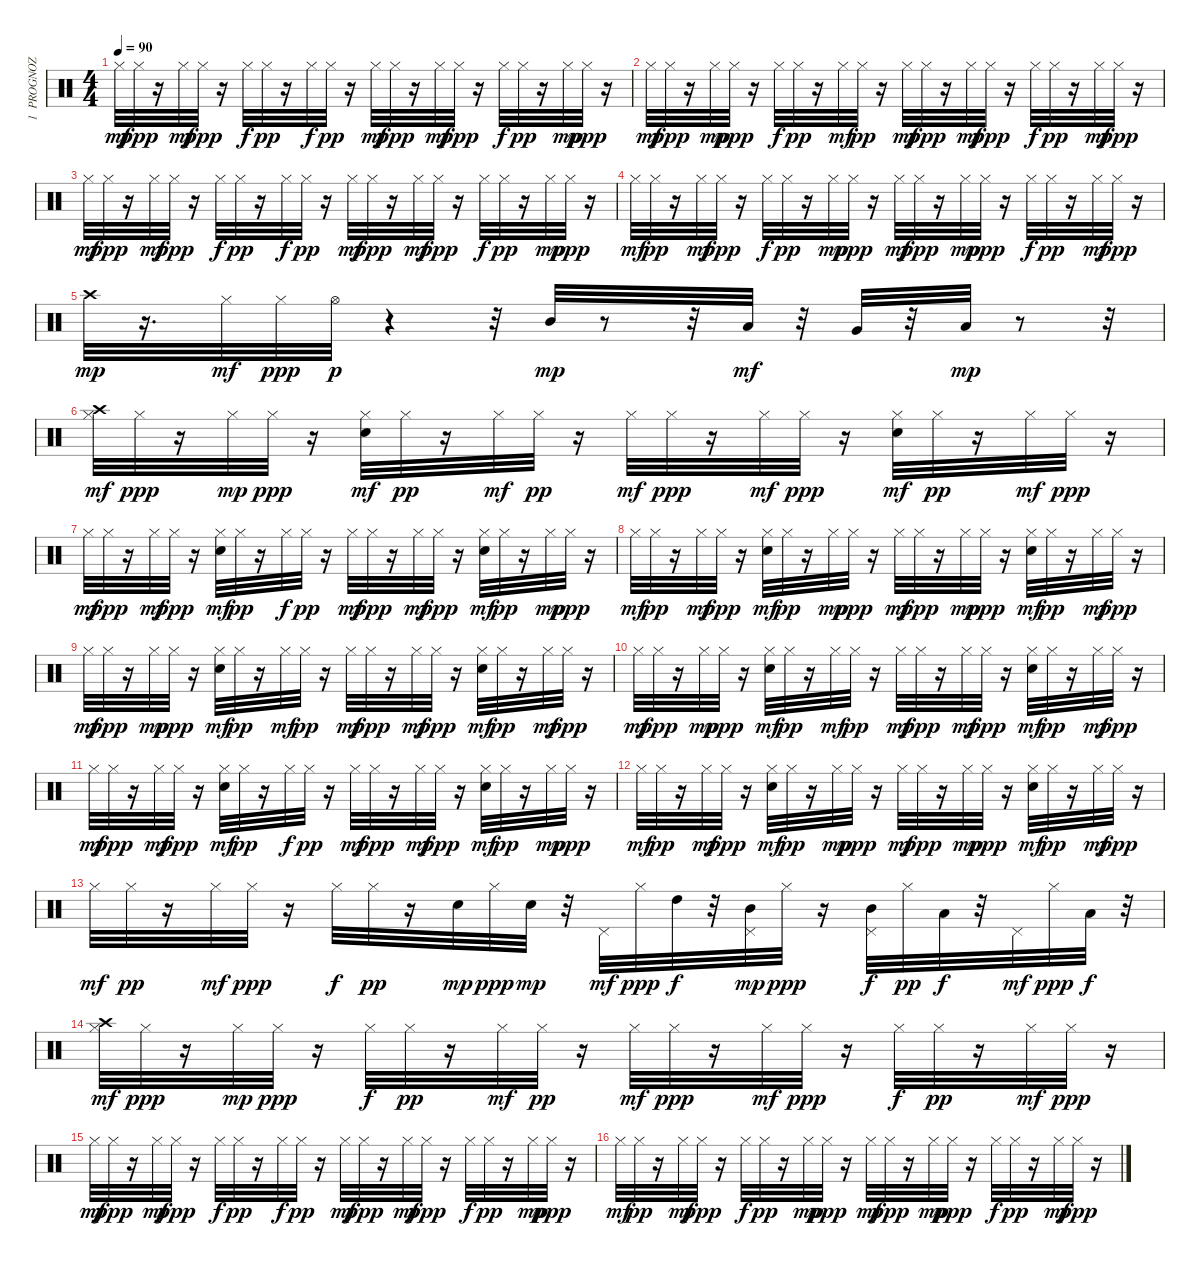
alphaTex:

\track ("1  PROGNOZ POGODY" "1  PROGNOZ") {instrument percussion}
\staff {score}
\articulation defaults
\ts (4 4)
\tempo 90
\clef neutral
\ks c "Hi-Hat (closed)".32{dy mf} "Hi-Hat (closed)".32{dy ppp}
r.16 "Hi-Hat (closed)".32{dy mf} "Hi-Hat (closed)".32{dy ppp} r.16 "Hi-Hat (closed)".32{dy f} "Hi-Hat (closed)".32{dy pp} r.16 "Hi-Hat (closed)".32{dy f} "Hi-Hat (closed)".32{dy pp} r.16 "Hi-Hat (closed)".32{dy mf} "Hi-Hat (closed)".32{dy ppp} r.16 "Hi-Hat (closed)".32{dy mf} "Hi-Hat (closed)".32{dy ppp} r.16 "Hi-Hat (closed)".32{dy f} "Hi-Hat (closed)".32{dy pp} r.16 "Hi-Hat (closed)".32{dy mp} "Hi-Hat (closed)".32{dy ppp} r.16 |
"Hi-Hat (closed)".32{dy mf} "Hi-Hat (closed)".32{dy ppp} r.16 "Hi-Hat (closed)".32{dy mp} "Hi-Hat (closed)".32{dy ppp} r.16 "Hi-Hat (closed)".32{dy f} "Hi-Hat (closed)".32{dy pp} r.16 "Hi-Hat (closed)".32{dy mf} "Hi-Hat (closed)".32{dy pp} r.16 "Hi-Hat (closed)".32{dy mf} "Hi-Hat (closed)".32{dy ppp} r.16 "Hi-Hat (closed)".32{dy mf} "Hi-Hat (closed)".32{dy ppp} r.16 "Hi-Hat (closed)".32{dy f} "Hi-Hat (closed)".32{dy pp} r.16 "Hi-Hat (closed)".32{dy mf} "Hi-Hat (closed)".32{dy ppp} r.16 |
"Hi-Hat (closed)".32{dy mf} "Hi-Hat (closed)".32{dy ppp} r.16 "Hi-Hat (closed)".32{dy mf} "Hi-Hat (closed)".32{dy ppp} r.16 "Hi-Hat (closed)".32{dy f} "Hi-Hat (closed)".32{dy pp} r.16 "Hi-Hat (closed)".32{dy f} "Hi-Hat (closed)".32{dy pp} r.16 "Hi-Hat (closed)".32{dy mf} "Hi-Hat (closed)".32{dy ppp} r.16 "Hi-Hat (closed)".32{dy mf} "Hi-Hat (closed)".32{dy ppp} r.16 "Hi-Hat (closed)".32{dy f} "Hi-Hat (closed)".32{dy pp} r.16 "Hi-Hat (closed)".32{dy mp} "Hi-Hat (closed)".32{dy ppp} r.16 |
"Hi-Hat (closed)".32{dy mf} "Hi-Hat (closed)".32{dy pp} r.16 "Hi-Hat (closed)".32{dy mf} "Hi-Hat (closed)".32{dy ppp} r.16 "Hi-Hat (closed)".32{dy f} "Hi-Hat (closed)".32{dy pp} r.16 "Hi-Hat (closed)".32{dy mp} "Hi-Hat (closed)".32{dy ppp} r.16 "Hi-Hat (closed)".32{dy mf} "Hi-Hat (closed)".32{dy ppp} r.16 "Hi-Hat (closed)".32{dy mp} "Hi-Hat (closed)".32{dy ppp} r.16 "Hi-Hat (closed)".32{dy f} "Hi-Hat (closed)".32{dy pp} r.16 "Hi-Hat (closed)".32{dy mf} "Hi-Hat (closed)".32{dy ppp} r.16 |
"Crash high (hit)".32{dy mp} r.16{d} "Hi-Hat (closed)".32{dy mf} "Hi-Hat (closed)".32{dy ppp} "Hi-Hat (open)".32{dy p} r.4 r.32 "Mid Tom (hit)".32{dy mp} r.8 r.32 "Low Tom (hit)".32{dy mf} r.32 "Very Low Tom (hit)".32 r.32 "Low Floor Tom (hit)".32{dy mp} r.8 r.32 |
("Crash high (hit)" "Hi-Hat (closed)").32{dy mf} "Hi-Hat (closed)".32{dy ppp} r.16 "Hi-Hat (closed)".32{dy mp} "Hi-Hat (closed)".32{dy ppp} r.16 ("Hi-Hat (closed)" "Snare (hit) 2").32{dy mf} "Hi-Hat (closed)".32{dy pp} r.16 "Hi-Hat (closed)".32{dy mf} "Hi-Hat (closed)".32{dy pp} r.16 "Hi-Hat (closed)".32{dy mf} "Hi-Hat (closed)".32{dy ppp} r.16 "Hi-Hat (closed)".32{dy mf} "Hi-Hat (closed)".32{dy ppp} r.16 ("Hi-Hat (closed)" "Snare (hit) 2").32{dy mf} "Hi-Hat (closed)".32{dy pp} r.16 "Hi-Hat (closed)".32{dy mf} "Hi-Hat (closed)".32{dy ppp} r.16 |
"Hi-Hat (closed)".32{dy mf} "Hi-Hat (closed)".32{dy ppp} r.16 "Hi-Hat (closed)".32{dy mf} "Hi-Hat (closed)".32{dy ppp} r.16 ("Hi-Hat (closed)" "Snare (hit) 2").32{dy mf} "Hi-Hat (closed)".32{dy pp} r.16 "Hi-Hat (closed)".32{dy f} "Hi-Hat (closed)".32{dy pp} r.16 "Hi-Hat (closed)".32{dy mf} "Hi-Hat (closed)".32{dy ppp} r.16 "Hi-Hat (closed)".32{dy mf} "Hi-Hat (closed)".32{dy ppp} r.16 ("Hi-Hat (closed)" "Snare (hit) 2").32{dy mf} "Hi-Hat (closed)".32{dy pp} r.16 "Hi-Hat (closed)".32{dy mp} "Hi-Hat (closed)".32{dy ppp} r.16 |
"Hi-Hat (closed)".32{dy mf} "Hi-Hat (closed)".32{dy pp} r.16 "Hi-Hat (closed)".32{dy mf} "Hi-Hat (closed)".32{dy ppp} r.16 ("Hi-Hat (closed)" "Snare (hit) 2").32{dy mf} "Hi-Hat (closed)".32{dy pp} r.16 "Hi-Hat (closed)".32{dy mp} "Hi-Hat (closed)".32{dy ppp} r.16 "Hi-Hat (closed)".32{dy mf} "Hi-Hat (closed)".32{dy ppp} r.16 "Hi-Hat (closed)".32{dy mp} "Hi-Hat (closed)".32{dy ppp} r.16 ("Hi-Hat (closed)" "Snare (hit) 2").32{dy mf} "Hi-Hat (closed)".32{dy pp} r.16 "Hi-Hat (closed)".32{dy mf} "Hi-Hat (closed)".32{dy ppp} r.16 |
"Hi-Hat (closed)".32{dy mf} "Hi-Hat (closed)".32{dy ppp} r.16 "Hi-Hat (closed)".32{dy mp} "Hi-Hat (closed)".32{dy ppp} r.16 ("Hi-Hat (closed)" "Snare (hit) 2").32{dy mf} "Hi-Hat (closed)".32{dy pp} r.16 "Hi-Hat (closed)".32{dy mf} "Hi-Hat (closed)".32{dy pp} r.16 "Hi-Hat (closed)".32{dy mf} "Hi-Hat (closed)".32{dy ppp} r.16 "Hi-Hat (closed)".32{dy mf} "Hi-Hat (closed)".32{dy ppp} r.16 ("Hi-Hat (closed)" "Snare (hit) 2").32{dy mf} "Hi-Hat (closed)".32{dy pp} r.16 "Hi-Hat (closed)".32{dy mf} "Hi-Hat (closed)".32{dy ppp} r.16 |
"Hi-Hat (closed)".32{dy mf} "Hi-Hat (closed)".32{dy ppp} r.16 "Hi-Hat (closed)".32{dy mp} "Hi-Hat (closed)".32{dy ppp} r.16 ("Hi-Hat (closed)" "Snare (hit) 2").32{dy mf} "Hi-Hat (closed)".32{dy pp} r.16 "Hi-Hat (closed)".32{dy mf} "Hi-Hat (closed)".32{dy pp} r.16 "Hi-Hat (closed)".32{dy mf} "Hi-Hat (closed)".32{dy ppp} r.16 "Hi-Hat (closed)".32{dy mf} "Hi-Hat (closed)".32{dy ppp} r.16 ("Hi-Hat (closed)" "Snare (hit) 2").32{dy mf} "Hi-Hat (closed)".32{dy pp} r.16 "Hi-Hat (closed)".32{dy mf} "Hi-Hat (closed)".32{dy ppp} r.16 |
"Hi-Hat (closed)".32{dy mf} "Hi-Hat (closed)".32{dy ppp} r.16 "Hi-Hat (closed)".32{dy mf} "Hi-Hat (closed)".32{dy ppp} r.16 ("Hi-Hat (closed)" "Snare (hit) 2").32{dy mf} "Hi-Hat (closed)".32{dy pp} r.16 "Hi-Hat (closed)".32{dy f} "Hi-Hat (closed)".32{dy pp} r.16 "Hi-Hat (closed)".32{dy mf} "Hi-Hat (closed)".32{dy ppp} r.16 "Hi-Hat (closed)".32{dy mf} "Hi-Hat (closed)".32{dy ppp} r.16 ("Hi-Hat (closed)" "Snare (hit) 2").32{dy mf} "Hi-Hat (closed)".32{dy pp} r.16 "Hi-Hat (closed)".32{dy mp} "Hi-Hat (closed)".32{dy ppp} r.16 |
"Hi-Hat (closed)".32{dy mf} "Hi-Hat (closed)".32{dy pp} r.16 "Hi-Hat (closed)".32{dy mf} "Hi-Hat (closed)".32{dy ppp} r.16 ("Hi-Hat (closed)" "Snare (hit) 2").32{dy mf} "Hi-Hat (closed)".32{dy pp} r.16 "Hi-Hat (closed)".32{dy mp} "Hi-Hat (closed)".32{dy ppp} r.16 "Hi-Hat (closed)".32{dy mf} "Hi-Hat (closed)".32{dy ppp} r.16 "Hi-Hat (closed)".32{dy mp} "Hi-Hat (closed)".32{dy ppp} r.16 ("Hi-Hat (closed)" "Snare (hit) 2").32{dy mf} "Hi-Hat (closed)".32{dy pp} r.16 "Hi-Hat (closed)".32{dy mf} "Hi-Hat (closed)".32{dy ppp} r.16 |
"Hi-Hat (closed)".32{dy mf} "Hi-Hat (closed)".32{dy pp} r.16 "Hi-Hat (closed)".32{dy mf} "Hi-Hat (closed)".32{dy ppp} r.16 "Hi-Hat (closed)".32{dy f} "Hi-Hat (closed)".32{dy pp} r.16 "Snare (hit) 2".32{dy mp} "Hi-Hat (closed)".32{dy ppp} "Snare (hit) 2".32{dy mp} r.32 "Pedal Hi-Hat (hit)".32{dy mf} "Hi-Hat (closed)".32{dy ppp} "High Tom (hit)".32{dy f} r.32 ("Pedal Hi-Hat (hit)" "Mid Tom (hit)").32{dy mp} "Hi-Hat (closed)".32{dy ppp} r.16 ("Pedal Hi-Hat (hit)" "Mid Tom (hit)").32{dy f} "Hi-Hat (closed)".32{dy pp} "Low Tom (hit)".32{dy f} r.32 "Pedal Hi-Hat (hit)".32{dy mf} "Hi-Hat (closed)".32{dy ppp} "Low Floor Tom (hit)".32{dy f} r.32 |
("Crash high (hit)" "Hi-Hat (closed)").32{dy mf} "Hi-Hat (closed)".32{dy ppp} r.16 "Hi-Hat (closed)".32{dy mp} "Hi-Hat (closed)".32{dy ppp} r.16 "Hi-Hat (closed)".32{dy f} "Hi-Hat (closed)".32{dy pp} r.16 "Hi-Hat (closed)".32{dy mf} "Hi-Hat (closed)".32{dy pp} r.16 "Hi-Hat (closed)".32{dy mf} "Hi-Hat (closed)".32{dy ppp} r.16 "Hi-Hat (closed)".32{dy mf} "Hi-Hat (closed)".32{dy ppp} r.16 "Hi-Hat (closed)".32{dy f} "Hi-Hat (closed)".32{dy pp} r.16 "Hi-Hat (closed)".32{dy mf} "Hi-Hat (closed)".32{dy ppp} r.16 |
"Hi-Hat (closed)".32{dy mf} "Hi-Hat (closed)".32{dy ppp} r.16 "Hi-Hat (closed)".32{dy mf} "Hi-Hat (closed)".32{dy ppp} r.16 "Hi-Hat (closed)".32{dy f} "Hi-Hat (closed)".32{dy pp} r.16 "Hi-Hat (closed)".32{dy f} "Hi-Hat (closed)".32{dy pp} r.16 "Hi-Hat (closed)".32{dy mf} "Hi-Hat (closed)".32{dy ppp} r.16 "Hi-Hat (closed)".32{dy mf} "Hi-Hat (closed)".32{dy ppp} r.16 "Hi-Hat (closed)".32{dy f} "Hi-Hat (closed)".32{dy pp} r.16 "Hi-Hat (closed)".32{dy mp} "Hi-Hat (closed)".32{dy ppp} r.16 |
"Hi-Hat (closed)".32{dy mf} "Hi-Hat (closed)".32{dy pp} r.16 "Hi-Hat (closed)".32{dy mf} "Hi-Hat (closed)".32{dy ppp} r.16 "Hi-Hat (closed)".32{dy f} "Hi-Hat (closed)".32{dy pp} r.16 "Hi-Hat (closed)".32{dy mp} "Hi-Hat (closed)".32{dy ppp} r.16 "Hi-Hat (closed)".32{dy mf} "Hi-Hat (closed)".32{dy ppp} r.16 "Hi-Hat (closed)".32{dy mp} "Hi-Hat (closed)".32{dy ppp} r.16 "Hi-Hat (closed)".32{dy f} "Hi-Hat (closed)".32{dy pp} r.16 "Hi-Hat (closed)".32{dy mf} "Hi-Hat (closed)".32{dy ppp} r.16
